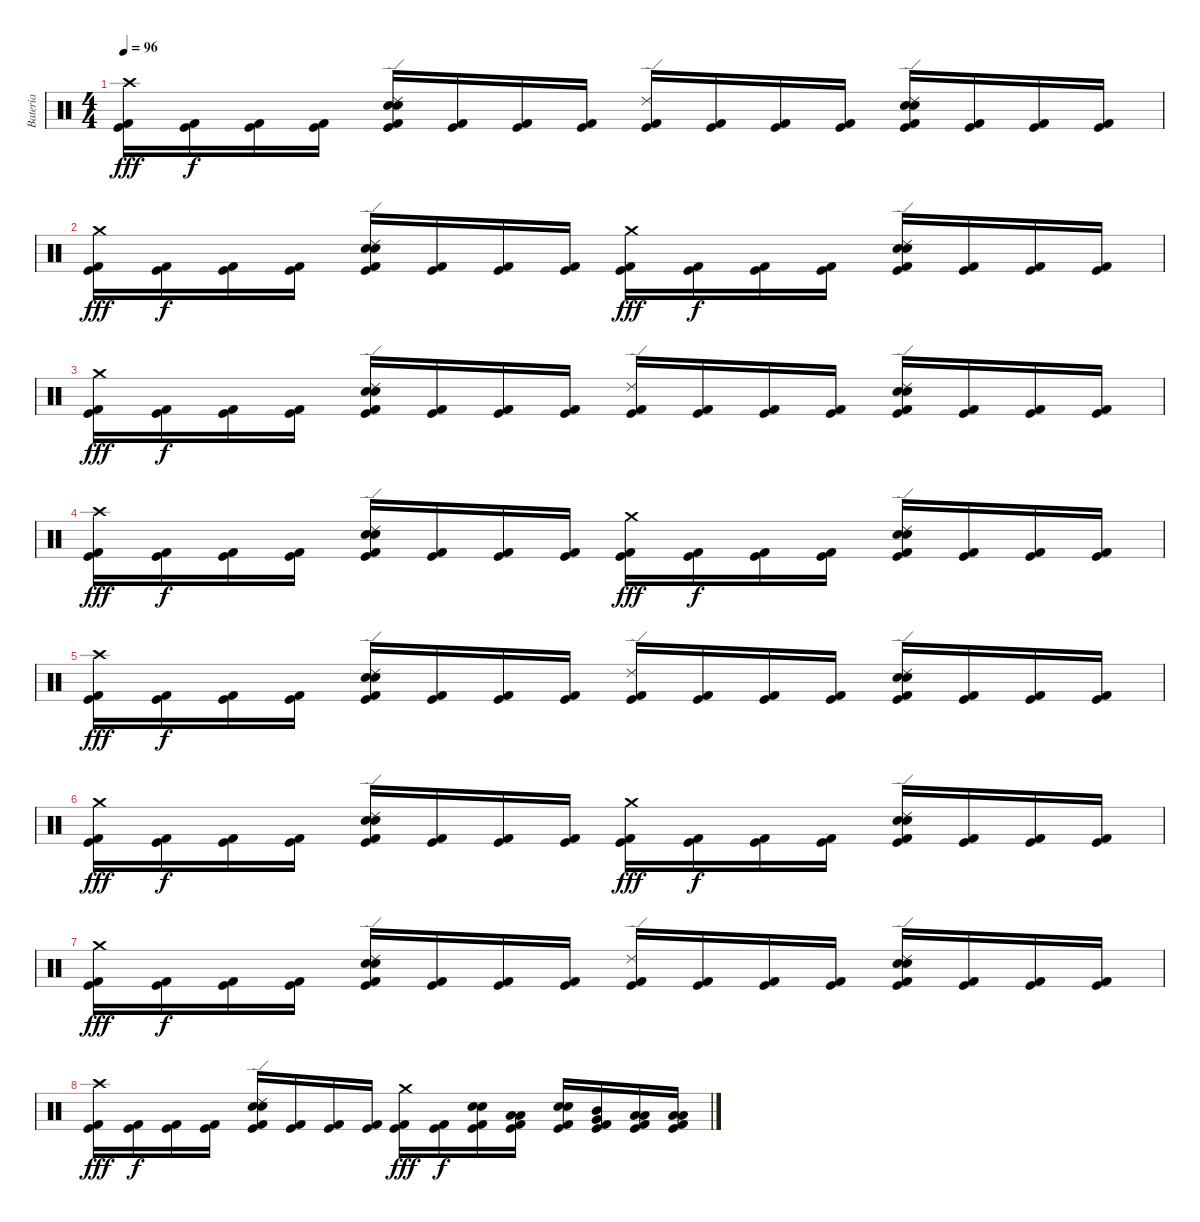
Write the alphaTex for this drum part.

\track ("Bateria" "Bateria") {instrument percussion}
\staff {score}
\articulation defaults
\ts (4 4)
\tempo 96
\clef neutral
\ks c
("Crash high (hit)" "Kick (hit) 2" "Kick (hit)").16{dy fff} ("Kick (hit) 2" "Kick (hit)").16{dy f} ("Kick (hit) 2" "Kick (hit)").16 ("Kick (hit) 2" "Kick (hit)").16 ("Ride (edge) 2" "Electric Snare (hit)" "Snare (hit) 2" "Kick (hit) 2" "Kick (hit)").16 ("Kick (hit) 2" "Kick (hit)").16 ("Kick (hit) 2" "Kick (hit)").16 ("Kick (hit) 2" "Kick (hit)").16 ("Ride (edge) 2" "Kick (hit) 2" "Kick (hit)").16 ("Kick (hit) 2" "Kick (hit)").16 ("Kick (hit) 2" "Kick (hit)").16 ("Kick (hit) 2" "Kick (hit)").16 ("Ride (edge) 2" "Electric Snare (hit)" "Snare (hit) 2" "Kick (hit) 2" "Kick (hit)").16 ("Kick (hit) 2" "Kick (hit)").16 ("Kick (hit) 2" "Kick (hit)").16 ("Kick (hit) 2" "Kick (hit)").16 |
("Crash medium (hit)" "Kick (hit) 2" "Kick (hit)").16{dy fff} ("Kick (hit) 2" "Kick (hit)").16{dy f} ("Kick (hit) 2" "Kick (hit)").16 ("Kick (hit) 2" "Kick (hit)").16 ("Ride (edge) 2" "Electric Snare (hit)" "Snare (hit) 2" "Kick (hit) 2" "Kick (hit)").16 ("Kick (hit) 2" "Kick (hit)").16 ("Kick (hit) 2" "Kick (hit)").16 ("Kick (hit) 2" "Kick (hit)").16 ("Crash medium (hit)" "Kick (hit) 2" "Kick (hit)").16{dy fff} ("Kick (hit) 2" "Kick (hit)").16{dy f} ("Kick (hit) 2" "Kick (hit)").16 ("Kick (hit) 2" "Kick (hit)").16 ("Ride (edge) 2" "Electric Snare (hit)" "Snare (hit) 2" "Kick (hit) 2" "Kick (hit)").16 ("Kick (hit) 2" "Kick (hit)").16 ("Kick (hit) 2" "Kick (hit)").16 ("Kick (hit) 2" "Kick (hit)").16 |
("Crash medium (hit)" "Kick (hit) 2" "Kick (hit)").16{dy fff} ("Kick (hit) 2" "Kick (hit)").16{dy f} ("Kick (hit) 2" "Kick (hit)").16 ("Kick (hit) 2" "Kick (hit)").16 ("Ride (edge) 2" "Electric Snare (hit)" "Snare (hit) 2" "Kick (hit) 2" "Kick (hit)").16 ("Kick (hit) 2" "Kick (hit)").16 ("Kick (hit) 2" "Kick (hit)").16 ("Kick (hit) 2" "Kick (hit)").16 ("Ride (edge) 2" "Kick (hit) 2" "Kick (hit)").16 ("Kick (hit) 2" "Kick (hit)").16 ("Kick (hit) 2" "Kick (hit)").16 ("Kick (hit) 2" "Kick (hit)").16 ("Ride (edge) 2" "Electric Snare (hit)" "Snare (hit) 2" "Kick (hit) 2" "Kick (hit)").16 ("Kick (hit) 2" "Kick (hit)").16 ("Kick (hit) 2" "Kick (hit)").16 ("Kick (hit) 2" "Kick (hit)").16 |
("Crash high (hit)" "Kick (hit) 2" "Kick (hit)").16{dy fff} ("Kick (hit) 2" "Kick (hit)").16{dy f} ("Kick (hit) 2" "Kick (hit)").16 ("Kick (hit) 2" "Kick (hit)").16 ("Ride (edge) 2" "Electric Snare (hit)" "Snare (hit) 2" "Kick (hit) 2" "Kick (hit)").16 ("Kick (hit) 2" "Kick (hit)").16 ("Kick (hit) 2" "Kick (hit)").16 ("Kick (hit) 2" "Kick (hit)").16 ("Crash medium (hit)" "Kick (hit) 2" "Kick (hit)").16{dy fff} ("Kick (hit) 2" "Kick (hit)").16{dy f} ("Kick (hit) 2" "Kick (hit)").16 ("Kick (hit) 2" "Kick (hit)").16 ("Ride (edge) 2" "Electric Snare (hit)" "Snare (hit) 2" "Kick (hit) 2" "Kick (hit)").16 ("Kick (hit) 2" "Kick (hit)").16 ("Kick (hit) 2" "Kick (hit)").16 ("Kick (hit) 2" "Kick (hit)").16 |
("Crash high (hit)" "Kick (hit) 2" "Kick (hit)").16{dy fff} ("Kick (hit) 2" "Kick (hit)").16{dy f} ("Kick (hit) 2" "Kick (hit)").16 ("Kick (hit) 2" "Kick (hit)").16 ("Ride (edge) 2" "Electric Snare (hit)" "Snare (hit) 2" "Kick (hit) 2" "Kick (hit)").16 ("Kick (hit) 2" "Kick (hit)").16 ("Kick (hit) 2" "Kick (hit)").16 ("Kick (hit) 2" "Kick (hit)").16 ("Ride (edge) 2" "Kick (hit) 2" "Kick (hit)").16 ("Kick (hit) 2" "Kick (hit)").16 ("Kick (hit) 2" "Kick (hit)").16 ("Kick (hit) 2" "Kick (hit)").16 ("Ride (edge) 2" "Electric Snare (hit)" "Snare (hit) 2" "Kick (hit) 2" "Kick (hit)").16 ("Kick (hit) 2" "Kick (hit)").16 ("Kick (hit) 2" "Kick (hit)").16 ("Kick (hit) 2" "Kick (hit)").16 |
("Crash medium (hit)" "Kick (hit) 2" "Kick (hit)").16{dy fff} ("Kick (hit) 2" "Kick (hit)").16{dy f} ("Kick (hit) 2" "Kick (hit)").16 ("Kick (hit) 2" "Kick (hit)").16 ("Ride (edge) 2" "Electric Snare (hit)" "Snare (hit) 2" "Kick (hit) 2" "Kick (hit)").16 ("Kick (hit) 2" "Kick (hit)").16 ("Kick (hit) 2" "Kick (hit)").16 ("Kick (hit) 2" "Kick (hit)").16 ("Crash medium (hit)" "Kick (hit) 2" "Kick (hit)").16{dy fff} ("Kick (hit) 2" "Kick (hit)").16{dy f} ("Kick (hit) 2" "Kick (hit)").16 ("Kick (hit) 2" "Kick (hit)").16 ("Ride (edge) 2" "Electric Snare (hit)" "Snare (hit) 2" "Kick (hit) 2" "Kick (hit)").16 ("Kick (hit) 2" "Kick (hit)").16 ("Kick (hit) 2" "Kick (hit)").16 ("Kick (hit) 2" "Kick (hit)").16 |
("Crash medium (hit)" "Kick (hit) 2" "Kick (hit)").16{dy fff} ("Kick (hit) 2" "Kick (hit)").16{dy f} ("Kick (hit) 2" "Kick (hit)").16 ("Kick (hit) 2" "Kick (hit)").16 ("Ride (edge) 2" "Electric Snare (hit)" "Snare (hit) 2" "Kick (hit) 2" "Kick (hit)").16 ("Kick (hit) 2" "Kick (hit)").16 ("Kick (hit) 2" "Kick (hit)").16 ("Kick (hit) 2" "Kick (hit)").16 ("Ride (edge) 2" "Kick (hit) 2" "Kick (hit)").16 ("Kick (hit) 2" "Kick (hit)").16 ("Kick (hit) 2" "Kick (hit)").16 ("Kick (hit) 2" "Kick (hit)").16 ("Ride (edge) 2" "Electric Snare (hit)" "Snare (hit) 2" "Kick (hit) 2" "Kick (hit)").16 ("Kick (hit) 2" "Kick (hit)").16 ("Kick (hit) 2" "Kick (hit)").16 ("Kick (hit) 2" "Kick (hit)").16 |
("Crash high (hit)" "Kick (hit) 2" "Kick (hit)").16{dy fff} ("Kick (hit) 2" "Kick (hit)").16{dy f} ("Kick (hit) 2" "Kick (hit)").16 ("Kick (hit) 2" "Kick (hit)").16 ("Ride (edge) 2" "Electric Snare (hit)" "Snare (hit) 2" "Kick (hit) 2" "Kick (hit)").16 ("Kick (hit) 2" "Kick (hit)").16 ("Kick (hit) 2" "Kick (hit)").16 ("Kick (hit) 2" "Kick (hit)").16 ("Crash medium (hit)" "Kick (hit) 2" "Kick (hit)").16{dy fff} ("Kick (hit) 2" "Kick (hit)").16{dy f} ("Electric Snare (hit)" "Snare (hit) 2" "Kick (hit) 2" "Kick (hit)").16 ("Low Tom (hit)" "Low Floor Tom (hit)" "Kick (hit) 2" "Kick (hit)").16 ("Electric Snare (hit)" "Snare (hit) 2" "Kick (hit) 2" "Kick (hit)").16 ("Mid Tom (hit)" "Very Low Tom (hit)" "Kick (hit) 2" "Kick (hit)").16 ("Low Tom (hit)" "Low Floor Tom (hit)" "Kick (hit) 2" "Kick (hit)").16 ("Low Tom (hit)" "Low Floor Tom (hit)" "Kick (hit) 2" "Kick (hit)").16
